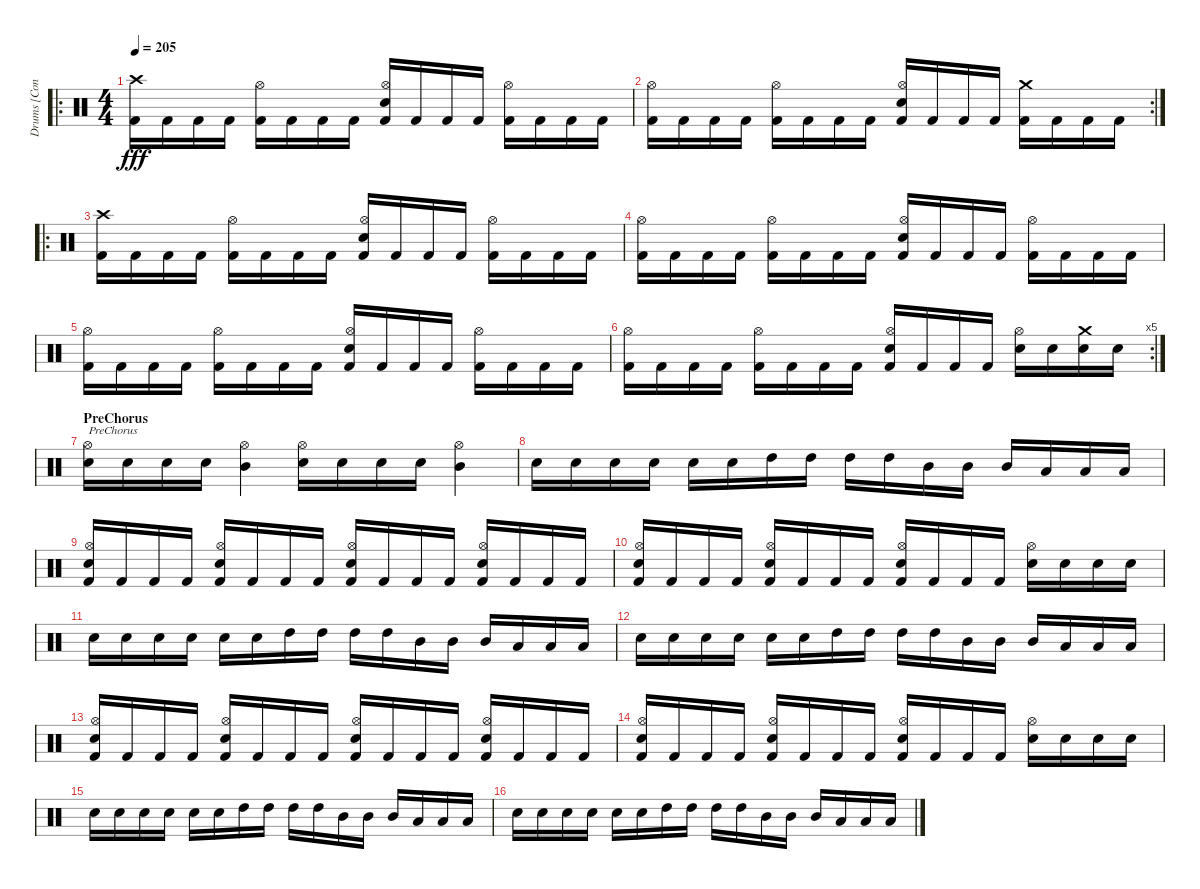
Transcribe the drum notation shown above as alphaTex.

\track ("Drums [Conny Peterson]" "Drums [Con") {instrument percussion}
\staff {score}
\articulation defaults
\ro
\ts (4 4)
\tempo 205
\clef neutral
\ks c
("Crash high (hit)" "Kick (hit) 2").16{dy fff} "Kick (hit) 2".16 "Kick (hit) 2".16 "Kick (hit) 2".16 ("Hi-Hat (open)" "Kick (hit) 2").16 "Kick (hit) 2".16 "Kick (hit) 2".16 "Kick (hit) 2".16 ("Hi-Hat (open)" "Electric Snare (hit)" "Kick (hit) 2").16 "Kick (hit) 2".16 "Kick (hit) 2".16 "Kick (hit) 2".16 ("Hi-Hat (open)" "Kick (hit) 2").16 "Kick (hit) 2".16 "Kick (hit) 2".16 "Kick (hit) 2".16 |
\rc 2
("Hi-Hat (open)" "Kick (hit) 2").16 "Kick (hit) 2".16 "Kick (hit) 2".16 "Kick (hit) 2".16 ("Hi-Hat (open)" "Kick (hit) 2").16 "Kick (hit) 2".16 "Kick (hit) 2".16 "Kick (hit) 2".16 ("Hi-Hat (open)" "Electric Snare (hit)" "Kick (hit) 2").16 "Kick (hit) 2".16 "Kick (hit) 2".16 "Kick (hit) 2".16 ("Crash medium (hit)" "Kick (hit) 2").16 "Kick (hit) 2".16 "Kick (hit) 2".16 "Kick (hit) 2".16 |
\ro
("Crash high (hit)" "Kick (hit) 2").16 "Kick (hit) 2".16 "Kick (hit) 2".16 "Kick (hit) 2".16 ("Hi-Hat (open)" "Kick (hit) 2").16 "Kick (hit) 2".16 "Kick (hit) 2".16 "Kick (hit) 2".16 ("Hi-Hat (open)" "Electric Snare (hit)" "Kick (hit) 2").16 "Kick (hit) 2".16 "Kick (hit) 2".16 "Kick (hit) 2".16 ("Hi-Hat (open)" "Kick (hit) 2").16 "Kick (hit) 2".16 "Kick (hit) 2".16 "Kick (hit) 2".16 |
("Hi-Hat (open)" "Kick (hit) 2").16 "Kick (hit) 2".16 "Kick (hit) 2".16 "Kick (hit) 2".16 ("Hi-Hat (open)" "Kick (hit) 2").16 "Kick (hit) 2".16 "Kick (hit) 2".16 "Kick (hit) 2".16 ("Hi-Hat (open)" "Electric Snare (hit)" "Kick (hit) 2").16 "Kick (hit) 2".16 "Kick (hit) 2".16 "Kick (hit) 2".16 ("Hi-Hat (open)" "Kick (hit) 2").16 "Kick (hit) 2".16 "Kick (hit) 2".16 "Kick (hit) 2".16 |
("Hi-Hat (open)" "Kick (hit) 2").16 "Kick (hit) 2".16 "Kick (hit) 2".16 "Kick (hit) 2".16 ("Hi-Hat (open)" "Kick (hit) 2").16 "Kick (hit) 2".16 "Kick (hit) 2".16 "Kick (hit) 2".16 ("Hi-Hat (open)" "Electric Snare (hit)" "Kick (hit) 2").16 "Kick (hit) 2".16 "Kick (hit) 2".16 "Kick (hit) 2".16 ("Hi-Hat (open)" "Kick (hit) 2").16 "Kick (hit) 2".16 "Kick (hit) 2".16 "Kick (hit) 2".16 |
\rc 5
("Hi-Hat (open)" "Kick (hit) 2").16 "Kick (hit) 2".16 "Kick (hit) 2".16 "Kick (hit) 2".16 ("Hi-Hat (open)" "Kick (hit) 2").16 "Kick (hit) 2".16 "Kick (hit) 2".16 "Kick (hit) 2".16 ("Hi-Hat (open)" "Electric Snare (hit)" "Kick (hit) 2").16 "Kick (hit) 2".16 "Kick (hit) 2".16 "Kick (hit) 2".16 ("Hi-Hat (open)" "Electric Snare (hit)").16 "Electric Snare (hit)".16 ("Crash medium (hit)" "Electric Snare (hit)").16 "Electric Snare (hit)".16 |
\section ("" "PreChorus")
("Hi-Hat (open)" "Electric Snare (hit)").16{txt "PreChorus"} "Electric Snare (hit)".16 "Electric Snare (hit)".16 "Electric Snare (hit)".16 ("Hi-Hat (open)" "Mid Tom (hit)").4 ("Hi-Hat (open)" "Electric Snare (hit)").16 "Electric Snare (hit)".16 "Electric Snare (hit)".16 "Electric Snare (hit)".16 ("Hi-Hat (open)" "Mid Tom (hit)").4 |
"Electric Snare (hit)".16 "Electric Snare (hit)".16 "Electric Snare (hit)".16 "Electric Snare (hit)".16 "Electric Snare (hit)".16 "Electric Snare (hit)".16 "High Tom (hit)".16 "High Tom (hit)".16 "High Tom (hit)".16 "High Tom (hit)".16 "Mid Tom (hit)".16 "Mid Tom (hit)".16 "Mid Tom (hit)".16 "Low Tom (hit)".16 "Low Tom (hit)".16 "Low Tom (hit)".16 |
("Hi-Hat (open)" "Electric Snare (hit)" "Kick (hit) 2").16 "Kick (hit) 2".16 "Kick (hit) 2".16 "Kick (hit) 2".16 ("Hi-Hat (open)" "Electric Snare (hit)" "Kick (hit) 2").16 "Kick (hit) 2".16 "Kick (hit) 2".16 "Kick (hit) 2".16 ("Hi-Hat (open)" "Electric Snare (hit)" "Kick (hit) 2").16 "Kick (hit) 2".16 "Kick (hit) 2".16 "Kick (hit) 2".16 ("Hi-Hat (open)" "Electric Snare (hit)" "Kick (hit) 2").16 "Kick (hit) 2".16 "Kick (hit) 2".16 "Kick (hit) 2".16 |
("Hi-Hat (open)" "Electric Snare (hit)" "Kick (hit) 2").16 "Kick (hit) 2".16 "Kick (hit) 2".16 "Kick (hit) 2".16 ("Hi-Hat (open)" "Electric Snare (hit)" "Kick (hit) 2").16 "Kick (hit) 2".16 "Kick (hit) 2".16 "Kick (hit) 2".16 ("Hi-Hat (open)" "Electric Snare (hit)" "Kick (hit) 2").16 "Kick (hit) 2".16 "Kick (hit) 2".16 "Kick (hit) 2".16 ("Hi-Hat (open)" "Electric Snare (hit)").16 "Electric Snare (hit)".16 "Electric Snare (hit)".16 "Electric Snare (hit)".16 |
"Electric Snare (hit)".16 "Electric Snare (hit)".16 "Electric Snare (hit)".16 "Electric Snare (hit)".16 "Electric Snare (hit)".16 "Electric Snare (hit)".16 "High Tom (hit)".16 "High Tom (hit)".16 "High Tom (hit)".16 "High Tom (hit)".16 "Mid Tom (hit)".16 "Mid Tom (hit)".16 "Mid Tom (hit)".16 "Low Tom (hit)".16 "Low Tom (hit)".16 "Low Tom (hit)".16 |
"Electric Snare (hit)".16 "Electric Snare (hit)".16 "Electric Snare (hit)".16 "Electric Snare (hit)".16 "Electric Snare (hit)".16 "Electric Snare (hit)".16 "High Tom (hit)".16 "High Tom (hit)".16 "High Tom (hit)".16 "High Tom (hit)".16 "Mid Tom (hit)".16 "Mid Tom (hit)".16 "Mid Tom (hit)".16 "Low Tom (hit)".16 "Low Tom (hit)".16 "Low Tom (hit)".16 |
("Hi-Hat (open)" "Electric Snare (hit)" "Kick (hit) 2").16 "Kick (hit) 2".16 "Kick (hit) 2".16 "Kick (hit) 2".16 ("Hi-Hat (open)" "Electric Snare (hit)" "Kick (hit) 2").16 "Kick (hit) 2".16 "Kick (hit) 2".16 "Kick (hit) 2".16 ("Hi-Hat (open)" "Electric Snare (hit)" "Kick (hit) 2").16 "Kick (hit) 2".16 "Kick (hit) 2".16 "Kick (hit) 2".16 ("Hi-Hat (open)" "Electric Snare (hit)" "Kick (hit) 2").16 "Kick (hit) 2".16 "Kick (hit) 2".16 "Kick (hit) 2".16 |
("Hi-Hat (open)" "Electric Snare (hit)" "Kick (hit) 2").16 "Kick (hit) 2".16 "Kick (hit) 2".16 "Kick (hit) 2".16 ("Hi-Hat (open)" "Electric Snare (hit)" "Kick (hit) 2").16 "Kick (hit) 2".16 "Kick (hit) 2".16 "Kick (hit) 2".16 ("Hi-Hat (open)" "Electric Snare (hit)" "Kick (hit) 2").16 "Kick (hit) 2".16 "Kick (hit) 2".16 "Kick (hit) 2".16 ("Hi-Hat (open)" "Electric Snare (hit)").16 "Electric Snare (hit)".16 "Electric Snare (hit)".16 "Electric Snare (hit)".16 |
"Electric Snare (hit)".16 "Electric Snare (hit)".16 "Electric Snare (hit)".16 "Electric Snare (hit)".16 "Electric Snare (hit)".16 "Electric Snare (hit)".16 "High Tom (hit)".16 "High Tom (hit)".16 "High Tom (hit)".16 "High Tom (hit)".16 "Mid Tom (hit)".16 "Mid Tom (hit)".16 "Mid Tom (hit)".16 "Low Tom (hit)".16 "Low Tom (hit)".16 "Low Tom (hit)".16 |
"Electric Snare (hit)".16 "Electric Snare (hit)".16 "Electric Snare (hit)".16 "Electric Snare (hit)".16 "Electric Snare (hit)".16 "Electric Snare (hit)".16 "High Tom (hit)".16 "High Tom (hit)".16 "High Tom (hit)".16 "High Tom (hit)".16 "Mid Tom (hit)".16 "Mid Tom (hit)".16 "Mid Tom (hit)".16 "Low Tom (hit)".16 "Low Tom (hit)".16 "Low Tom (hit)".16
